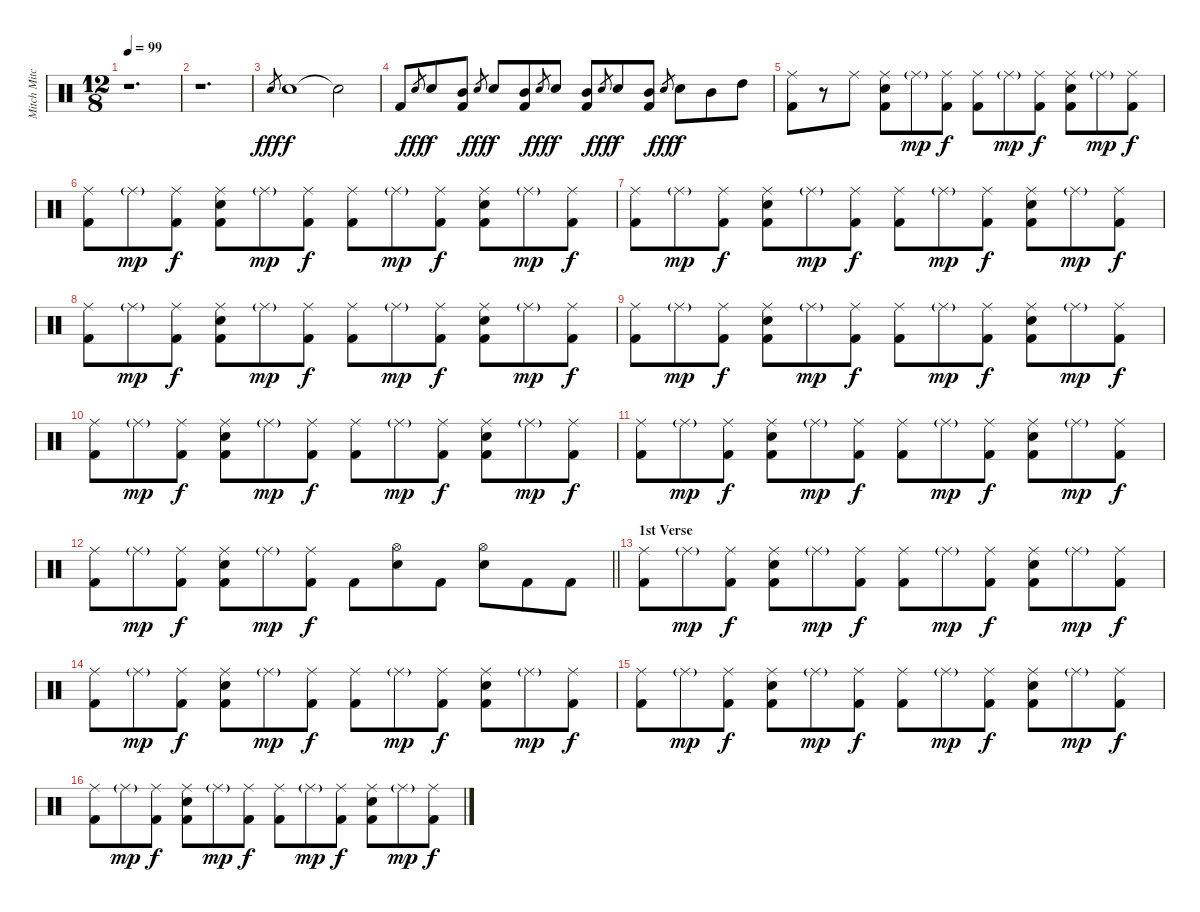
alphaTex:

\track ("Mitch Mitchell" "Mitch Mitc") {instrument percussion}
\staff {score}
\articulation defaults
\ts (12 8)
\tempo 99
\clef neutral
\ks c
r.1{d dy fff} |
r.1{d} |
"Electric Snare (hit)".8{gr} "Electric Snare (hit)".1{dy f} "Snare (hit)"{t}.2 |
"Kick (hit) 2".8 "Electric Snare (hit)".8{gr dy fff} "Electric Snare (hit)".8{dy f} ("Mid Tom (hit)" "Kick (hit) 2").8 "Electric Snare (hit)".8{gr dy fff} "Electric Snare (hit)".8{dy f} ("Mid Tom (hit)" "Kick (hit) 2").8 "Electric Snare (hit)".8{gr dy fff} "Electric Snare (hit)".8{dy f} ("Mid Tom (hit)" "Kick (hit) 2").8 "Electric Snare (hit)".8{gr dy fff} "Electric Snare (hit)".8{dy f} ("Mid Tom (hit)" "Kick (hit) 2").8 "Electric Snare (hit)".8{gr dy fff} "Electric Snare (hit)".8{dy f} "Mid Tom (hit)".8 "High Tom (hit)".8 |
("Ride (middle)" "Kick (hit) 2").8 r.8 "Ride (middle)".8 ("Ride (middle)" "Electric Snare (hit)" "Kick (hit) 2").8 "Ride (middle)"{g}.8{dy mp} ("Ride (middle)" "Kick (hit) 2").8{dy f} ("Ride (middle)" "Kick (hit) 2").8 "Ride (middle)"{g}.8{dy mp} ("Ride (middle)" "Kick (hit) 2").8{dy f} ("Ride (middle)" "Electric Snare (hit)" "Kick (hit) 2").8 "Ride (middle)"{g}.8{dy mp} ("Ride (middle)" "Kick (hit) 2").8{dy f} |
("Ride (middle)" "Kick (hit) 2").8 "Ride (middle)"{g}.8{dy mp} ("Ride (middle)" "Kick (hit) 2").8{dy f} ("Ride (middle)" "Electric Snare (hit)" "Kick (hit) 2").8 "Ride (middle)"{g}.8{dy mp} ("Ride (middle)" "Kick (hit) 2").8{dy f} ("Ride (middle)" "Kick (hit) 2").8 "Ride (middle)"{g}.8{dy mp} ("Ride (middle)" "Kick (hit) 2").8{dy f} ("Ride (middle)" "Electric Snare (hit)" "Kick (hit) 2").8 "Ride (middle)"{g}.8{dy mp} ("Ride (middle)" "Kick (hit) 2").8{dy f} |
("Ride (middle)" "Kick (hit) 2").8 "Ride (middle)"{g}.8{dy mp} ("Ride (middle)" "Kick (hit) 2").8{dy f} ("Ride (middle)" "Electric Snare (hit)" "Kick (hit) 2").8 "Ride (middle)"{g}.8{dy mp} ("Ride (middle)" "Kick (hit) 2").8{dy f} ("Ride (middle)" "Kick (hit) 2").8 "Ride (middle)"{g}.8{dy mp} ("Ride (middle)" "Kick (hit) 2").8{dy f} ("Ride (middle)" "Electric Snare (hit)" "Kick (hit) 2").8 "Ride (middle)"{g}.8{dy mp} ("Ride (middle)" "Kick (hit) 2").8{dy f} |
("Ride (middle)" "Kick (hit) 2").8 "Ride (middle)"{g}.8{dy mp} ("Ride (middle)" "Kick (hit) 2").8{dy f} ("Ride (middle)" "Electric Snare (hit)" "Kick (hit) 2").8 "Ride (middle)"{g}.8{dy mp} ("Ride (middle)" "Kick (hit) 2").8{dy f} ("Ride (middle)" "Kick (hit) 2").8 "Ride (middle)"{g}.8{dy mp} ("Ride (middle)" "Kick (hit) 2").8{dy f} ("Ride (middle)" "Electric Snare (hit)" "Kick (hit) 2").8 "Ride (middle)"{g}.8{dy mp} ("Ride (middle)" "Kick (hit) 2").8{dy f} |
("Ride (middle)" "Kick (hit) 2").8 "Ride (middle)"{g}.8{dy mp} ("Ride (middle)" "Kick (hit) 2").8{dy f} ("Ride (middle)" "Electric Snare (hit)" "Kick (hit) 2").8 "Ride (middle)"{g}.8{dy mp} ("Ride (middle)" "Kick (hit) 2").8{dy f} ("Ride (middle)" "Kick (hit) 2").8 "Ride (middle)"{g}.8{dy mp} ("Ride (middle)" "Kick (hit) 2").8{dy f} ("Ride (middle)" "Electric Snare (hit)" "Kick (hit) 2").8 "Ride (middle)"{g}.8{dy mp} ("Ride (middle)" "Kick (hit) 2").8{dy f} |
("Ride (middle)" "Kick (hit) 2").8 "Ride (middle)"{g}.8{dy mp} ("Ride (middle)" "Kick (hit) 2").8{dy f} ("Ride (middle)" "Electric Snare (hit)" "Kick (hit) 2").8 "Ride (middle)"{g}.8{dy mp} ("Ride (middle)" "Kick (hit) 2").8{dy f} ("Ride (middle)" "Kick (hit) 2").8 "Ride (middle)"{g}.8{dy mp} ("Ride (middle)" "Kick (hit) 2").8{dy f} ("Ride (middle)" "Electric Snare (hit)" "Kick (hit) 2").8 "Ride (middle)"{g}.8{dy mp} ("Ride (middle)" "Kick (hit) 2").8{dy f} |
("Ride (middle)" "Kick (hit) 2").8 "Ride (middle)"{g}.8{dy mp} ("Ride (middle)" "Kick (hit) 2").8{dy f} ("Ride (middle)" "Electric Snare (hit)" "Kick (hit) 2").8 "Ride (middle)"{g}.8{dy mp} ("Ride (middle)" "Kick (hit) 2").8{dy f} ("Ride (middle)" "Kick (hit) 2").8 "Ride (middle)"{g}.8{dy mp} ("Ride (middle)" "Kick (hit) 2").8{dy f} ("Ride (middle)" "Electric Snare (hit)" "Kick (hit) 2").8 "Ride (middle)"{g}.8{dy mp} ("Ride (middle)" "Kick (hit) 2").8{dy f} |
\barLineRight lightlight
("Ride (middle)" "Kick (hit) 2").8 "Ride (middle)"{g}.8{dy mp} ("Ride (middle)" "Kick (hit) 2").8{dy f} ("Ride (middle)" "Electric Snare (hit)" "Kick (hit) 2").8 "Ride (middle)"{g}.8{dy mp} ("Ride (middle)" "Kick (hit) 2").8{dy f} "Kick (hit) 2".8 ("Hi-Hat (open)" "Electric Snare (hit)").8 "Kick (hit) 2".8 ("Hi-Hat (open)" "Electric Snare (hit)").8 "Kick (hit) 2".8 "Kick (hit) 2".8 |
\section ("" "1st Verse")
("Ride (middle)" "Kick (hit) 2").8 "Ride (middle)"{g}.8{dy mp} ("Ride (middle)" "Kick (hit) 2").8{dy f} ("Ride (middle)" "Electric Snare (hit)" "Kick (hit) 2").8 "Ride (middle)"{g}.8{dy mp} ("Ride (middle)" "Kick (hit) 2").8{dy f} ("Ride (middle)" "Kick (hit) 2").8 "Ride (middle)"{g}.8{dy mp} ("Ride (middle)" "Kick (hit) 2").8{dy f} ("Ride (middle)" "Electric Snare (hit)" "Kick (hit) 2").8 "Ride (middle)"{g}.8{dy mp} ("Ride (middle)" "Kick (hit) 2").8{dy f} |
("Ride (middle)" "Kick (hit) 2").8 "Ride (middle)"{g}.8{dy mp} ("Ride (middle)" "Kick (hit) 2").8{dy f} ("Ride (middle)" "Electric Snare (hit)" "Kick (hit) 2").8 "Ride (middle)"{g}.8{dy mp} ("Ride (middle)" "Kick (hit) 2").8{dy f} ("Ride (middle)" "Kick (hit) 2").8 "Ride (middle)"{g}.8{dy mp} ("Ride (middle)" "Kick (hit) 2").8{dy f} ("Ride (middle)" "Electric Snare (hit)" "Kick (hit) 2").8 "Ride (middle)"{g}.8{dy mp} ("Ride (middle)" "Kick (hit) 2").8{dy f} |
("Ride (middle)" "Kick (hit) 2").8 "Ride (middle)"{g}.8{dy mp} ("Ride (middle)" "Kick (hit) 2").8{dy f} ("Ride (middle)" "Electric Snare (hit)" "Kick (hit) 2").8 "Ride (middle)"{g}.8{dy mp} ("Ride (middle)" "Kick (hit) 2").8{dy f} ("Ride (middle)" "Kick (hit) 2").8 "Ride (middle)"{g}.8{dy mp} ("Ride (middle)" "Kick (hit) 2").8{dy f} ("Ride (middle)" "Electric Snare (hit)" "Kick (hit) 2").8 "Ride (middle)"{g}.8{dy mp} ("Ride (middle)" "Kick (hit) 2").8{dy f} |
("Ride (middle)" "Kick (hit) 2").8 "Ride (middle)"{g}.8{dy mp} ("Ride (middle)" "Kick (hit) 2").8{dy f} ("Ride (middle)" "Electric Snare (hit)" "Kick (hit) 2").8 "Ride (middle)"{g}.8{dy mp} ("Ride (middle)" "Kick (hit) 2").8{dy f} ("Ride (middle)" "Kick (hit) 2").8 "Ride (middle)"{g}.8{dy mp} ("Ride (middle)" "Kick (hit) 2").8{dy f} ("Ride (middle)" "Electric Snare (hit)" "Kick (hit) 2").8 "Ride (middle)"{g}.8{dy mp} ("Ride (middle)" "Kick (hit) 2").8{dy f}
